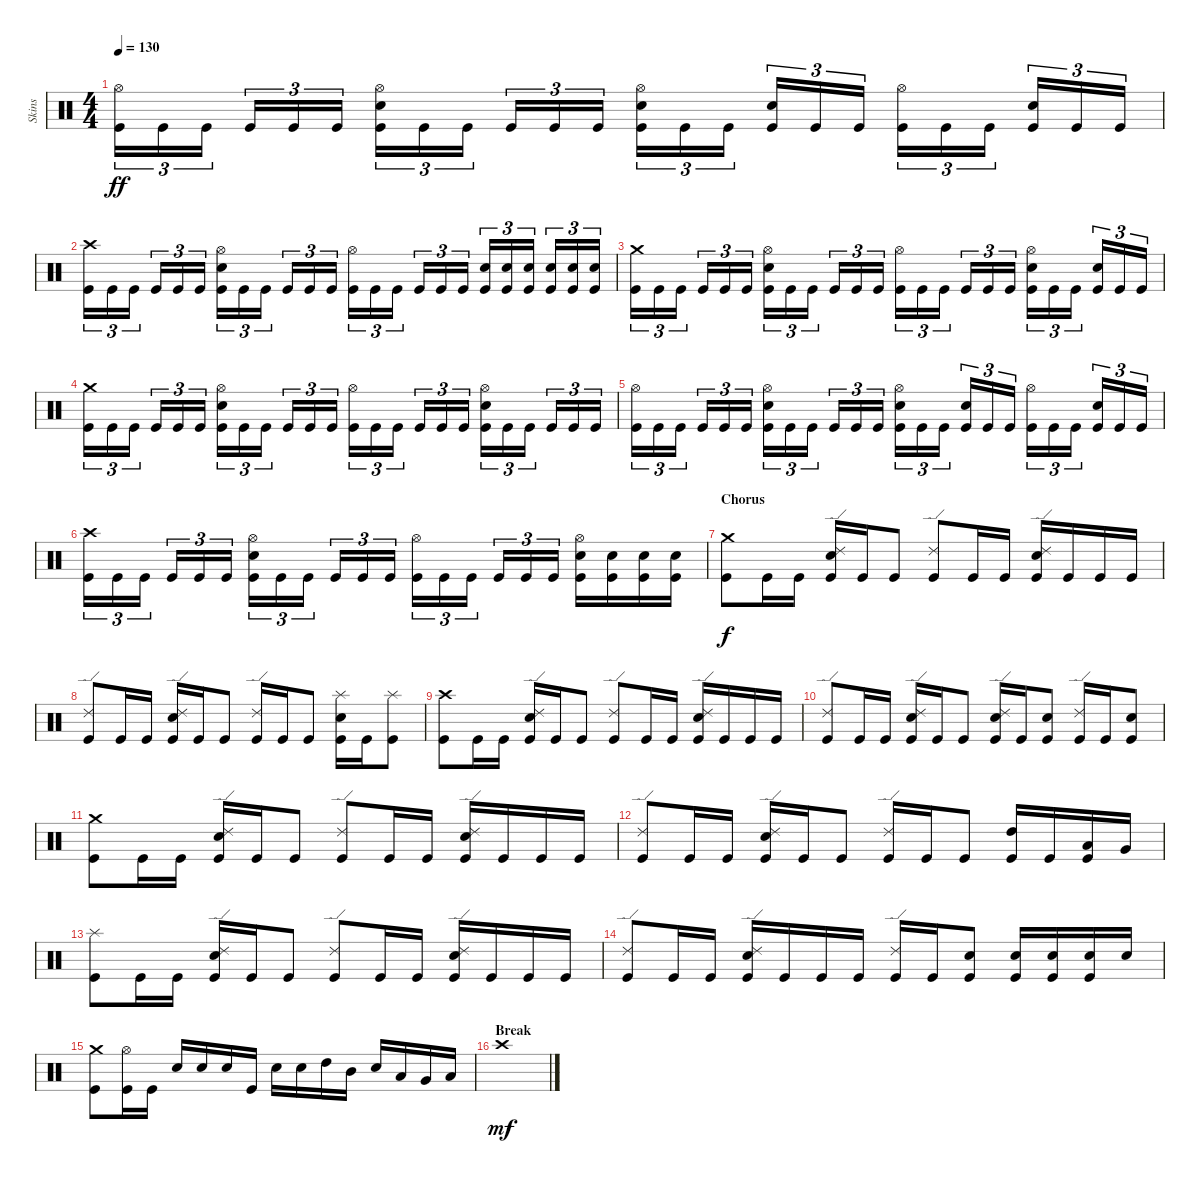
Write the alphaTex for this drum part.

\track ("Skins" "Skins") {instrument percussion}
\staff {score}
\articulation defaults
\ts (4 4)
\tempo 130
\clef neutral
\ks c
("Hi-Hat (open)" "Kick (hit)").16{tu (3 2) dy ff} "Kick (hit)".16{tu (3 2)} "Kick (hit)".16{tu (3 2)} "Kick (hit)".16{tu (3 2)} "Kick (hit)".16{tu (3 2)} "Kick (hit)".16{tu (3 2)} ("Hi-Hat (open)" "Electric Snare (hit)" "Kick (hit)").16{tu (3 2)} "Kick (hit)".16{tu (3 2)} "Kick (hit)".16{tu (3 2)} "Kick (hit)".16{tu (3 2)} "Kick (hit)".16{tu (3 2)} "Kick (hit)".16{tu (3 2)} ("Hi-Hat (open)" "Electric Snare (hit)" "Kick (hit)").16{tu (3 2)} "Kick (hit)".16{tu (3 2)} "Kick (hit)".16{tu (3 2)} ("Electric Snare (hit)" "Kick (hit)").16{tu (3 2)} "Kick (hit)".16{tu (3 2)} "Kick (hit)".16{tu (3 2)} ("Hi-Hat (open)" "Kick (hit)").16{tu (3 2)} "Kick (hit)".16{tu (3 2)} "Kick (hit)".16{tu (3 2)} ("Electric Snare (hit)" "Kick (hit)").16{tu (3 2)} "Kick (hit)".16{tu (3 2)} "Kick (hit)".16{tu (3 2)} |
("Crash high (hit)" "Kick (hit)").16{tu (3 2)} "Kick (hit)".16{tu (3 2)} "Kick (hit)".16{tu (3 2)} "Kick (hit)".16{tu (3 2)} "Kick (hit)".16{tu (3 2)} "Kick (hit)".16{tu (3 2)} ("Hi-Hat (open)" "Electric Snare (hit)" "Kick (hit)").16{tu (3 2)} "Kick (hit)".16{tu (3 2)} "Kick (hit)".16{tu (3 2)} "Kick (hit)".16{tu (3 2)} "Kick (hit)".16{tu (3 2)} "Kick (hit)".16{tu (3 2)} ("Hi-Hat (open)" "Kick (hit)").16{tu (3 2)} "Kick (hit)".16{tu (3 2)} "Kick (hit)".16{tu (3 2)} "Kick (hit)".16{tu (3 2)} "Kick (hit)".16{tu (3 2)} "Kick (hit)".16{tu (3 2)} ("Electric Snare (hit)" "Kick (hit)").16{tu (3 2)} ("Electric Snare (hit)" "Kick (hit)").16{tu (3 2)} ("Electric Snare (hit)" "Kick (hit)").16{tu (3 2)} ("Electric Snare (hit)" "Kick (hit)").16{tu (3 2)} ("Electric Snare (hit)" "Kick (hit)").16{tu (3 2)} ("Electric Snare (hit)" "Kick (hit)").16{tu (3 2)} |
("Crash medium (hit)" "Kick (hit)").16{tu (3 2)} "Kick (hit)".16{tu (3 2)} "Kick (hit)".16{tu (3 2)} "Kick (hit)".16{tu (3 2)} "Kick (hit)".16{tu (3 2)} "Kick (hit)".16{tu (3 2)} ("Hi-Hat (open)" "Electric Snare (hit)" "Kick (hit)").16{tu (3 2)} "Kick (hit)".16{tu (3 2)} "Kick (hit)".16{tu (3 2)} "Kick (hit)".16{tu (3 2)} "Kick (hit)".16{tu (3 2)} "Kick (hit)".16{tu (3 2)} ("Hi-Hat (open)" "Kick (hit)").16{tu (3 2)} "Kick (hit)".16{tu (3 2)} "Kick (hit)".16{tu (3 2)} "Kick (hit)".16{tu (3 2)} "Kick (hit)".16{tu (3 2)} "Kick (hit)".16{tu (3 2)} ("Hi-Hat (open)" "Electric Snare (hit)" "Kick (hit)").16{tu (3 2)} "Kick (hit)".16{tu (3 2)} "Kick (hit)".16{tu (3 2)} ("Electric Snare (hit)" "Kick (hit)").16{tu (3 2)} "Kick (hit)".16{tu (3 2)} "Kick (hit)".16{tu (3 2)} |
("Crash medium (hit)" "Kick (hit)").16{tu (3 2)} "Kick (hit)".16{tu (3 2)} "Kick (hit)".16{tu (3 2)} "Kick (hit)".16{tu (3 2)} "Kick (hit)".16{tu (3 2)} "Kick (hit)".16{tu (3 2)} ("Hi-Hat (open)" "Electric Snare (hit)" "Kick (hit)").16{tu (3 2)} "Kick (hit)".16{tu (3 2)} "Kick (hit)".16{tu (3 2)} "Kick (hit)".16{tu (3 2)} "Kick (hit)".16{tu (3 2)} "Kick (hit)".16{tu (3 2)} ("Hi-Hat (open)" "Kick (hit)").16{tu (3 2)} "Kick (hit)".16{tu (3 2)} "Kick (hit)".16{tu (3 2)} "Kick (hit)".16{tu (3 2)} "Kick (hit)".16{tu (3 2)} "Kick (hit)".16{tu (3 2)} ("Hi-Hat (open)" "Electric Snare (hit)" "Kick (hit)").16{tu (3 2)} "Kick (hit)".16{tu (3 2)} "Kick (hit)".16{tu (3 2)} "Kick (hit)".16{tu (3 2)} "Kick (hit)".16{tu (3 2)} "Kick (hit)".16{tu (3 2)} |
("Hi-Hat (open)" "Kick (hit)").16{tu (3 2)} "Kick (hit)".16{tu (3 2)} "Kick (hit)".16{tu (3 2)} "Kick (hit)".16{tu (3 2)} "Kick (hit)".16{tu (3 2)} "Kick (hit)".16{tu (3 2)} ("Hi-Hat (open)" "Electric Snare (hit)" "Kick (hit)").16{tu (3 2)} "Kick (hit)".16{tu (3 2)} "Kick (hit)".16{tu (3 2)} "Kick (hit)".16{tu (3 2)} "Kick (hit)".16{tu (3 2)} "Kick (hit)".16{tu (3 2)} ("Hi-Hat (open)" "Electric Snare (hit)" "Kick (hit)").16{tu (3 2)} "Kick (hit)".16{tu (3 2)} "Kick (hit)".16{tu (3 2)} ("Electric Snare (hit)" "Kick (hit)").16{tu (3 2)} "Kick (hit)".16{tu (3 2)} "Kick (hit)".16{tu (3 2)} ("Hi-Hat (open)" "Kick (hit)").16{tu (3 2)} "Kick (hit)".16{tu (3 2)} "Kick (hit)".16{tu (3 2)} ("Electric Snare (hit)" "Kick (hit)").16{tu (3 2)} "Kick (hit)".16{tu (3 2)} "Kick (hit)".16{tu (3 2)} |
("Crash high (hit)" "Kick (hit)").16{tu (3 2)} "Kick (hit)".16{tu (3 2)} "Kick (hit)".16{tu (3 2)} "Kick (hit)".16{tu (3 2)} "Kick (hit)".16{tu (3 2)} "Kick (hit)".16{tu (3 2)} ("Hi-Hat (open)" "Electric Snare (hit)" "Kick (hit)").16{tu (3 2)} "Kick (hit)".16{tu (3 2)} "Kick (hit)".16{tu (3 2)} "Kick (hit)".16{tu (3 2)} "Kick (hit)".16{tu (3 2)} "Kick (hit)".16{tu (3 2)} ("Hi-Hat (open)" "Kick (hit)").16{tu (3 2)} "Kick (hit)".16{tu (3 2)} "Kick (hit)".16{tu (3 2)} "Kick (hit)".16{tu (3 2)} "Kick (hit)".16{tu (3 2)} "Kick (hit)".16{tu (3 2)} ("Hi-Hat (open)" "Electric Snare (hit)" "Kick (hit)").16 ("Electric Snare (hit)" "Kick (hit)").16 ("Electric Snare (hit)" "Kick (hit)").16 ("Electric Snare (hit)" "Kick (hit)").16 |
\section ("" "Chorus")
("Crash medium (hit)" "Kick (hit)").8{dy f} "Kick (hit)".16 "Kick (hit)".16 ("Ride (edge) 2" "Electric Snare (hit)" "Kick (hit)").16 "Kick (hit)".16 "Kick (hit)".8 ("Ride (edge) 2" "Kick (hit)").8 "Kick (hit)".16 "Kick (hit)".16 ("Ride (edge) 2" "Electric Snare (hit)" "Kick (hit)").16 "Kick (hit)".16 "Kick (hit)".16 "Kick (hit)".16 |
("Ride (edge) 2" "Kick (hit)").8 "Kick (hit)".16 "Kick (hit)".16 ("Ride (edge) 2" "Electric Snare (hit)" "Kick (hit)").16 "Kick (hit)".16 "Kick (hit)".8 ("Ride (edge) 2" "Kick (hit)").16 "Kick (hit)".16 "Kick (hit)".8 ("Splash (hit)" "Electric Snare (hit)" "Kick (hit)").16 "Kick (hit)".16 ("Splash (hit)" "Kick (hit)").8 |
("Crash high (hit)" "Kick (hit)").8 "Kick (hit)".16 "Kick (hit)".16 ("Ride (edge) 2" "Electric Snare (hit)" "Kick (hit)").16 "Kick (hit)".16 "Kick (hit)".8 ("Ride (edge) 2" "Kick (hit)").8 "Kick (hit)".16 "Kick (hit)".16 ("Ride (edge) 2" "Electric Snare (hit)" "Kick (hit)").16 "Kick (hit)".16 "Kick (hit)".16 "Kick (hit)".16 |
("Ride (edge) 2" "Kick (hit)").8 "Kick (hit)".16 "Kick (hit)".16 ("Ride (edge) 2" "Electric Snare (hit)" "Kick (hit)").16 "Kick (hit)".16 "Kick (hit)".8 ("Ride (edge) 2" "Electric Snare (hit)" "Kick (hit)").16 "Kick (hit)".16 ("Electric Snare (hit)" "Kick (hit)").8 ("Ride (edge) 2" "Kick (hit)").16 "Kick (hit)".16 ("Electric Snare (hit)" "Kick (hit)").8 |
("Crash medium (hit)" "Kick (hit)").8 "Kick (hit)".16 "Kick (hit)".16 ("Ride (edge) 2" "Electric Snare (hit)" "Kick (hit)").16 "Kick (hit)".16 "Kick (hit)".8 ("Ride (edge) 2" "Kick (hit)").8 "Kick (hit)".16 "Kick (hit)".16 ("Ride (edge) 2" "Electric Snare (hit)" "Kick (hit)").16 "Kick (hit)".16 "Kick (hit)".16 "Kick (hit)".16 |
("Ride (edge) 2" "Kick (hit)").8 "Kick (hit)".16 "Kick (hit)".16 ("Ride (edge) 2" "Electric Snare (hit)" "Kick (hit)").16 "Kick (hit)".16 "Kick (hit)".8 ("Ride (edge) 2" "Kick (hit)").16 "Kick (hit)".16 "Kick (hit)".8 ("High Tom (hit)" "Kick (hit)").16 "Kick (hit)".16 ("Low Tom (hit)" "Kick (hit)").16 "Very Low Tom (hit)".16 |
("Splash (hit)" "Kick (hit)").8 "Kick (hit)".16 "Kick (hit)".16 ("Ride (edge) 2" "Electric Snare (hit)" "Kick (hit)").16 "Kick (hit)".16 "Kick (hit)".8 ("Ride (edge) 2" "Kick (hit)").8 "Kick (hit)".16 "Kick (hit)".16 ("Ride (edge) 2" "Electric Snare (hit)" "Kick (hit)").16 "Kick (hit)".16 "Kick (hit)".16 "Kick (hit)".16 |
("Ride (edge) 2" "Kick (hit)").8 "Kick (hit)".16 "Kick (hit)".16 ("Ride (edge) 2" "Electric Snare (hit)" "Kick (hit)").16 "Kick (hit)".16 "Kick (hit)".16 "Kick (hit)".16 ("Ride (edge) 2" "Kick (hit)").16 "Kick (hit)".16 ("Electric Snare (hit)" "Kick (hit)").8 ("Electric Snare (hit)" "Kick (hit)").16 ("Electric Snare (hit)" "Kick (hit)").16 ("Electric Snare (hit)" "Kick (hit)").16 "Electric Snare (hit)".16 |
("Crash medium (hit)" "Kick (hit)").8 ("Hi-Hat (open)" "Kick (hit)").16 "Kick (hit)".16 "Electric Snare (hit)".16 "Electric Snare (hit)".16 "Electric Snare (hit)".16 "Kick (hit)".16 "Electric Snare (hit)".16 "Electric Snare (hit)".16 "High Tom (hit)".16 "Mid Tom (hit)".16 "Electric Snare (hit)".16 "Low Tom (hit)".16 "Very Low Tom (hit)".16 "Low Floor Tom (hit)".16 |
\section ("" "Break")
"Crash high (hit)".1{dy mf}
